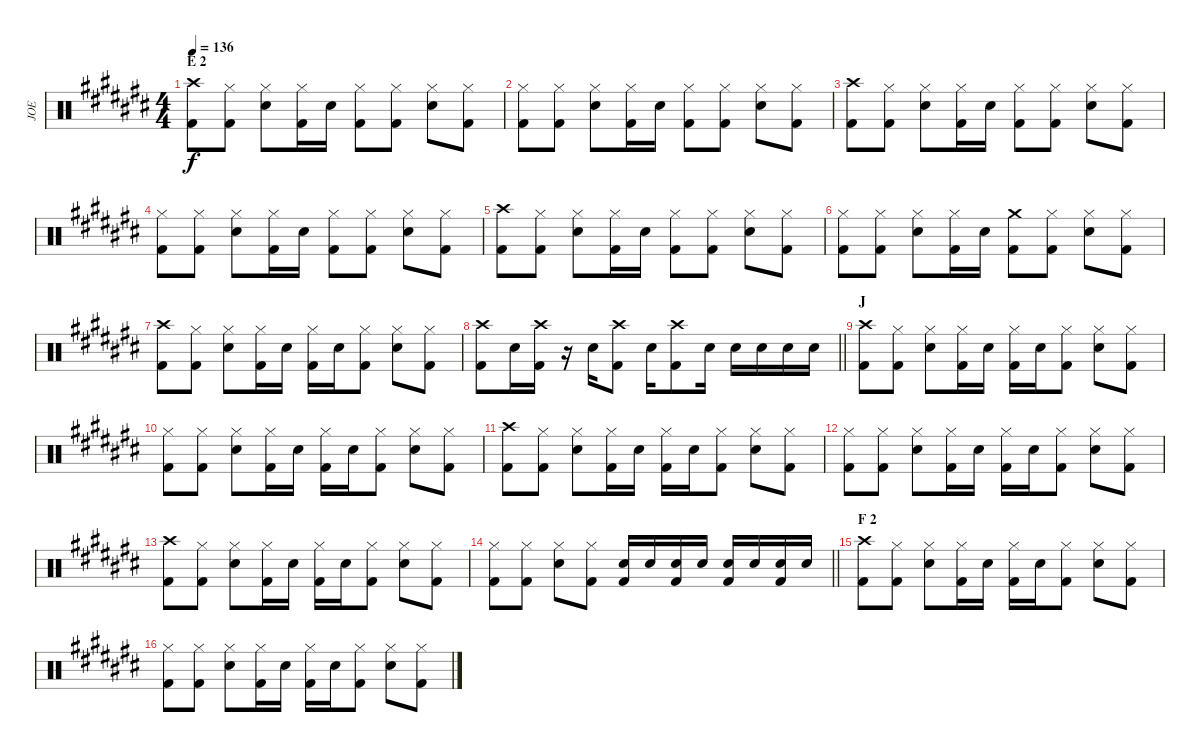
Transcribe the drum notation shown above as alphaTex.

\track ("JOE" "JOE") {instrument percussion}
\staff {score}
\articulation defaults
\ts (4 4)
\section ("" "E 2")
\tempo 136
\clef neutral
\ks c#
("Crash high (hit)" "Kick (hit) 2").8{dy f} ("Hi-Hat (closed)" "Kick (hit) 2").8 ("Hi-Hat (closed)" "Snare (hit) 2").8 ("Hi-Hat (closed)" "Kick (hit) 2").16 "Snare (hit) 2".16 ("Hi-Hat (closed)" "Kick (hit) 2").8 ("Hi-Hat (closed)" "Kick (hit) 2").8 ("Hi-Hat (closed)" "Snare (hit) 2").8 ("Hi-Hat (closed)" "Kick (hit) 2").8 |
("Hi-Hat (closed)" "Kick (hit) 2").8 ("Hi-Hat (closed)" "Kick (hit) 2").8 ("Hi-Hat (closed)" "Snare (hit) 2").8 ("Hi-Hat (closed)" "Kick (hit) 2").16 "Snare (hit) 2".16 ("Hi-Hat (closed)" "Kick (hit) 2").8 ("Hi-Hat (closed)" "Kick (hit) 2").8 ("Hi-Hat (closed)" "Snare (hit) 2").8 ("Hi-Hat (closed)" "Kick (hit) 2").8 |
("Crash high (hit)" "Kick (hit) 2").8 ("Hi-Hat (closed)" "Kick (hit) 2").8 ("Hi-Hat (closed)" "Snare (hit) 2").8 ("Hi-Hat (closed)" "Kick (hit) 2").16 "Snare (hit) 2".16 ("Hi-Hat (closed)" "Kick (hit) 2").8 ("Hi-Hat (closed)" "Kick (hit) 2").8 ("Hi-Hat (closed)" "Snare (hit) 2").8 ("Hi-Hat (closed)" "Kick (hit) 2").8 |
("Hi-Hat (closed)" "Kick (hit) 2").8 ("Hi-Hat (closed)" "Kick (hit) 2").8 ("Hi-Hat (closed)" "Snare (hit) 2").8 ("Hi-Hat (closed)" "Kick (hit) 2").16 "Snare (hit) 2".16 ("Hi-Hat (closed)" "Kick (hit) 2").8 ("Hi-Hat (closed)" "Kick (hit) 2").8 ("Hi-Hat (closed)" "Snare (hit) 2").8 ("Hi-Hat (closed)" "Kick (hit) 2").8 |
("Crash high (hit)" "Kick (hit) 2").8 ("Hi-Hat (closed)" "Kick (hit) 2").8 ("Hi-Hat (closed)" "Snare (hit) 2").8 ("Hi-Hat (closed)" "Kick (hit) 2").16 "Snare (hit) 2".16 ("Hi-Hat (closed)" "Kick (hit) 2").8 ("Hi-Hat (closed)" "Kick (hit) 2").8 ("Hi-Hat (closed)" "Snare (hit) 2").8 ("Hi-Hat (closed)" "Kick (hit) 2").8 |
("Hi-Hat (closed)" "Kick (hit) 2").8 ("Hi-Hat (closed)" "Kick (hit) 2").8 ("Hi-Hat (closed)" "Snare (hit) 2").8 ("Hi-Hat (closed)" "Kick (hit) 2").16 "Snare (hit) 2".16 ("Crash medium (hit)" "Kick (hit) 2").8 ("Hi-Hat (closed)" "Kick (hit) 2").8 ("Hi-Hat (closed)" "Snare (hit) 2").8 ("Hi-Hat (closed)" "Kick (hit) 2").8 |
("Crash high (hit)" "Kick (hit) 2").8 ("Hi-Hat (closed)" "Kick (hit) 2").8 ("Hi-Hat (closed)" "Snare (hit) 2").8 ("Hi-Hat (closed)" "Kick (hit) 2").16 "Snare (hit) 2".16 ("Hi-Hat (closed)" "Kick (hit) 2").16 "Snare (hit) 2".16 ("Hi-Hat (closed)" "Kick (hit) 2").8 ("Hi-Hat (closed)" "Snare (hit) 2").8 ("Hi-Hat (closed)" "Kick (hit) 2").8 |
\barLineRight lightlight
("Crash high (hit)" "Kick (hit) 2").8 "Snare (hit) 2".16 ("Crash high (hit)" "Kick (hit) 2").16 r.16 "Snare (hit) 2".16 ("Crash high (hit)" "Kick (hit) 2").8 "Snare (hit) 2".16 ("Crash high (hit)" "Kick (hit) 2").8 "Snare (hit) 2".16 "Snare (hit) 2".16 "Snare (hit) 2".16 "Snare (hit) 2".16 "Snare (hit) 2".16 |
\section ("" "J")
("Crash high (hit)" "Kick (hit) 2").8 ("Hi-Hat (closed)" "Kick (hit) 2").8 ("Hi-Hat (closed)" "Snare (hit) 2").8 ("Hi-Hat (closed)" "Kick (hit) 2").16 "Snare (hit) 2".16 ("Hi-Hat (closed)" "Kick (hit) 2").16 "Snare (hit) 2".16 ("Hi-Hat (closed)" "Kick (hit) 2").8 ("Hi-Hat (closed)" "Snare (hit) 2").8 ("Hi-Hat (closed)" "Kick (hit) 2").8 |
("Hi-Hat (closed)" "Kick (hit) 2").8 ("Hi-Hat (closed)" "Kick (hit) 2").8 ("Hi-Hat (closed)" "Snare (hit) 2").8 ("Hi-Hat (closed)" "Kick (hit) 2").16 "Snare (hit) 2".16 ("Hi-Hat (closed)" "Kick (hit) 2").16 "Snare (hit) 2".16 ("Hi-Hat (closed)" "Kick (hit) 2").8 ("Hi-Hat (closed)" "Snare (hit) 2").8 ("Hi-Hat (closed)" "Kick (hit) 2").8 |
("Crash high (hit)" "Kick (hit) 2").8 ("Hi-Hat (closed)" "Kick (hit) 2").8 ("Hi-Hat (closed)" "Snare (hit) 2").8 ("Hi-Hat (closed)" "Kick (hit) 2").16 "Snare (hit) 2".16 ("Hi-Hat (closed)" "Kick (hit) 2").16 "Snare (hit) 2".16 ("Hi-Hat (closed)" "Kick (hit) 2").8 ("Hi-Hat (closed)" "Snare (hit) 2").8 ("Hi-Hat (closed)" "Kick (hit) 2").8 |
("Hi-Hat (closed)" "Kick (hit) 2").8 ("Hi-Hat (closed)" "Kick (hit) 2").8 ("Hi-Hat (closed)" "Snare (hit) 2").8 ("Hi-Hat (closed)" "Kick (hit) 2").16 "Snare (hit) 2".16 ("Hi-Hat (closed)" "Kick (hit) 2").16 "Snare (hit) 2".16 ("Hi-Hat (closed)" "Kick (hit) 2").8 ("Hi-Hat (closed)" "Snare (hit) 2").8 ("Hi-Hat (closed)" "Kick (hit) 2").8 |
("Crash high (hit)" "Kick (hit) 2").8 ("Hi-Hat (closed)" "Kick (hit) 2").8 ("Hi-Hat (closed)" "Snare (hit) 2").8 ("Hi-Hat (closed)" "Kick (hit) 2").16 "Snare (hit) 2".16 ("Hi-Hat (closed)" "Kick (hit) 2").16 "Snare (hit) 2".16 ("Hi-Hat (closed)" "Kick (hit) 2").8 ("Hi-Hat (closed)" "Snare (hit) 2").8 ("Hi-Hat (closed)" "Kick (hit) 2").8 |
\barLineRight lightlight
("Hi-Hat (closed)" "Kick (hit) 2").8 ("Hi-Hat (closed)" "Kick (hit) 2").8 ("Hi-Hat (closed)" "Snare (hit) 2").8 ("Hi-Hat (closed)" "Kick (hit) 2").8 ("Snare (hit) 2" "Kick (hit) 2").16 "Snare (hit) 2".16 ("Snare (hit) 2" "Kick (hit) 2").16 "Snare (hit) 2".16 ("Snare (hit) 2" "Kick (hit) 2").16 "Snare (hit) 2".16 ("Snare (hit) 2" "Kick (hit) 2").16 "Snare (hit) 2".16 |
\section ("" "F 2")
("Crash high (hit)" "Kick (hit) 2").8 ("Hi-Hat (closed)" "Kick (hit) 2").8 ("Hi-Hat (closed)" "Snare (hit) 2").8 ("Hi-Hat (closed)" "Kick (hit) 2").16 "Snare (hit) 2".16 ("Hi-Hat (closed)" "Kick (hit) 2").16 "Snare (hit) 2".16 ("Hi-Hat (closed)" "Kick (hit) 2").8 ("Hi-Hat (closed)" "Snare (hit) 2").8 ("Hi-Hat (closed)" "Kick (hit) 2").8 |
("Hi-Hat (closed)" "Kick (hit) 2").8 ("Hi-Hat (closed)" "Kick (hit) 2").8 ("Hi-Hat (closed)" "Snare (hit) 2").8 ("Hi-Hat (closed)" "Kick (hit) 2").16 "Snare (hit) 2".16 ("Hi-Hat (closed)" "Kick (hit) 2").16 "Snare (hit) 2".16 ("Hi-Hat (closed)" "Kick (hit) 2").8 ("Hi-Hat (closed)" "Snare (hit) 2").8 ("Hi-Hat (closed)" "Kick (hit) 2").8
